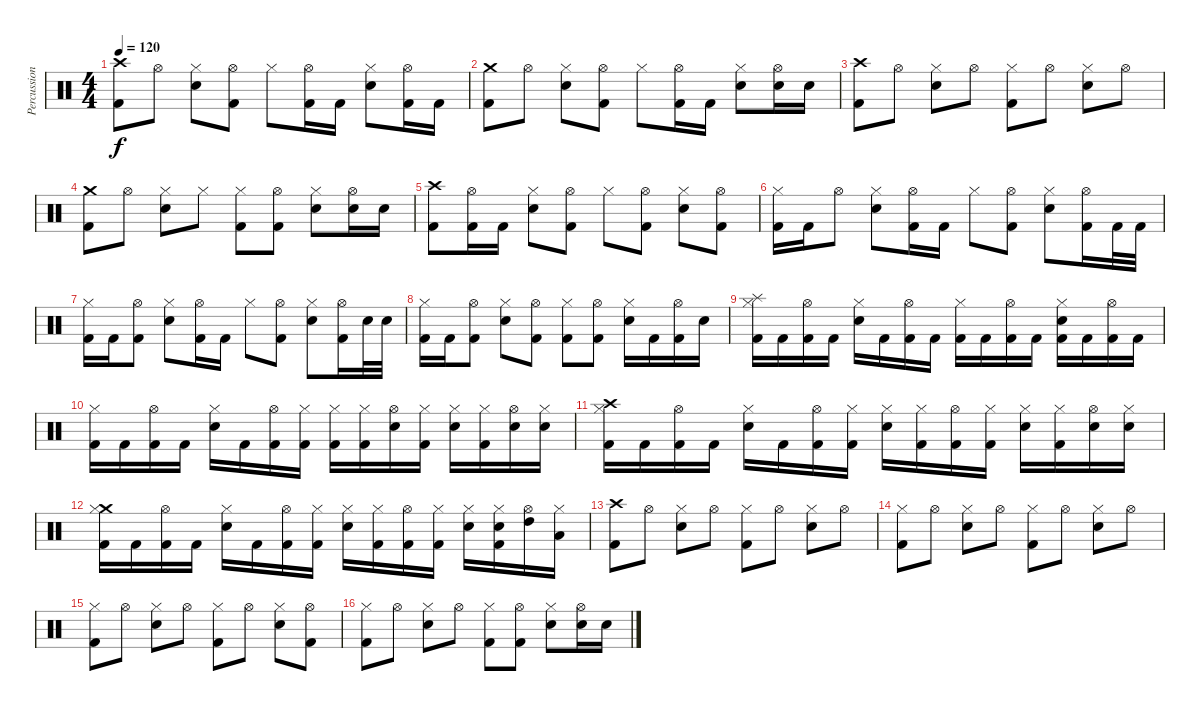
\track ("Percussion" "Percussion") {instrument percussion}
\staff {score}
\articulation defaults
\ts (4 4)
\tempo 120
\clef neutral
\ks c
("Crash high (hit)" "Kick (hit) 2").8{dy f} "Hi-Hat (open)".8 ("Hi-Hat (closed)" "Snare (hit) 2").8 ("Hi-Hat (open)" "Kick (hit) 2").8 "Hi-Hat (closed)".8 ("Hi-Hat (open)" "Kick (hit) 2").16 "Kick (hit) 2".16 ("Hi-Hat (closed)" "Snare (hit) 2").8 ("Hi-Hat (open)" "Kick (hit) 2").16 "Kick (hit) 2".16 |
("Crash medium (hit)" "Kick (hit) 2").8 "Hi-Hat (open)".8 ("Hi-Hat (closed)" "Snare (hit) 2").8 ("Hi-Hat (open)" "Kick (hit) 2").8 "Hi-Hat (closed)".8 ("Hi-Hat (open)" "Kick (hit) 2").16 "Kick (hit) 2".16 ("Hi-Hat (closed)" "Snare (hit) 2").8 ("Hi-Hat (open)" "Snare (hit) 2").16 "Snare (hit) 2".16 |
("Crash high (hit)" "Kick (hit) 2").8 "Hi-Hat (open)".8 ("Hi-Hat (closed)" "Snare (hit) 2").8 "Hi-Hat (open)".8 ("Hi-Hat (closed)" "Kick (hit) 2").8 "Hi-Hat (open)".8 ("Hi-Hat (closed)" "Snare (hit) 2").8 "Hi-Hat (open)".8 |
("Crash medium (hit)" "Kick (hit) 2").8 "Hi-Hat (open)".8 ("Hi-Hat (closed)" "Snare (hit) 2").8 "Hi-Hat (closed)".8 ("Hi-Hat (closed)" "Kick (hit) 2").8 ("Hi-Hat (open)" "Kick (hit) 2").8 ("Hi-Hat (closed)" "Snare (hit) 2").8 ("Hi-Hat (open)" "Snare (hit) 2").16 "Snare (hit) 2".16 |
("Crash high (hit)" "Kick (hit) 2").8 ("Hi-Hat (open)" "Kick (hit) 2").16 "Kick (hit) 2".16 ("Hi-Hat (closed)" "Snare (hit) 2").8 ("Hi-Hat (open)" "Kick (hit) 2").8 "Hi-Hat (closed)".8 ("Hi-Hat (open)" "Kick (hit) 2").8 ("Hi-Hat (closed)" "Snare (hit) 2").8 ("Hi-Hat (open)" "Kick (hit) 2").8 |
("Hi-Hat (closed)" "Kick (hit) 2").16 "Kick (hit) 2".16 "Hi-Hat (open)".8 ("Hi-Hat (closed)" "Snare (hit) 2").8 ("Hi-Hat (open)" "Kick (hit) 2").16 "Kick (hit) 2".16 "Hi-Hat (closed)".8 ("Hi-Hat (open)" "Kick (hit) 2").8 ("Hi-Hat (closed)" "Snare (hit) 2").8 ("Hi-Hat (open)" "Kick (hit) 2").16 "Kick (hit) 2".32 "Kick (hit) 2".32 |
("Hi-Hat (closed)" "Kick (hit) 2").16 "Kick (hit) 2".16 ("Hi-Hat (open)" "Kick (hit) 2").8 ("Hi-Hat (closed)" "Snare (hit) 2").8 ("Hi-Hat (open)" "Kick (hit) 2").16 "Kick (hit) 2".16 "Hi-Hat (closed)".8 ("Hi-Hat (open)" "Kick (hit) 2").8 ("Hi-Hat (closed)" "Snare (hit) 2").8 ("Hi-Hat (open)" "Kick (hit) 2").16 "Snare (hit) 2".32 "Snare (hit) 2".32 |
("Hi-Hat (closed)" "Kick (hit) 2").16 "Kick (hit) 2".16 ("Hi-Hat (open)" "Kick (hit) 2").8 ("Hi-Hat (closed)" "Snare (hit) 2").8 ("Hi-Hat (open)" "Kick (hit) 2").8 ("Hi-Hat (closed)" "Kick (hit) 2").8 ("Hi-Hat (open)" "Kick (hit) 2").8 ("Hi-Hat (closed)" "Snare (hit) 2").16 "Kick (hit) 2".16 ("Hi-Hat (open)" "Kick (hit) 2").16 "Snare (hit) 2".16 |
("Splash (hit)" "Hi-Hat (closed)" "Kick (hit) 2").16 "Kick (hit) 2".16 ("Hi-Hat (open)" "Kick (hit) 2").16 "Kick (hit) 2".16 ("Hi-Hat (closed)" "Snare (hit) 2").16 "Kick (hit) 2".16 ("Hi-Hat (open)" "Kick (hit) 2").16 "Kick (hit) 2".16 ("Hi-Hat (closed)" "Kick (hit) 2").16 "Kick (hit) 2".16 ("Hi-Hat (open)" "Kick (hit) 2").16 "Kick (hit) 2".16 ("Hi-Hat (closed)" "Snare (hit) 2" "Kick (hit) 2").16 "Kick (hit) 2".16 ("Hi-Hat (open)" "Kick (hit) 2").16 "Kick (hit) 2".16 |
("Hi-Hat (closed)" "Kick (hit) 2").16 "Kick (hit) 2".16 ("Hi-Hat (open)" "Kick (hit) 2").16 "Kick (hit) 2".16 ("Hi-Hat (closed)" "Snare (hit) 2").16 "Kick (hit) 2".16 ("Hi-Hat (open)" "Kick (hit) 2").16 ("Hi-Hat (closed)" "Kick (hit) 2").16 ("Hi-Hat (closed)" "Kick (hit) 2").16 ("Hi-Hat (closed)" "Kick (hit) 2").16 ("Hi-Hat (open)" "Snare (hit) 2").16 ("Hi-Hat (closed)" "Kick (hit) 2").16 ("Hi-Hat (closed)" "Snare (hit) 2").16 ("Hi-Hat (closed)" "Kick (hit) 2").16 ("Hi-Hat (open)" "Snare (hit) 2").16 ("Hi-Hat (closed)" "Snare (hit) 2").16 |
("Crash high (hit)" "Hi-Hat (closed)" "Kick (hit) 2").16 "Kick (hit) 2".16 ("Hi-Hat (open)" "Kick (hit) 2").16 "Kick (hit) 2".16 ("Hi-Hat (closed)" "Snare (hit) 2").16 "Kick (hit) 2".16 ("Hi-Hat (open)" "Kick (hit) 2").16 ("Hi-Hat (closed)" "Kick (hit) 2").16 ("Hi-Hat (closed)" "Snare (hit) 2").16 ("Hi-Hat (closed)" "Kick (hit) 2").16 ("Hi-Hat (open)" "Kick (hit) 2").16 ("Hi-Hat (closed)" "Kick (hit) 2").16 ("Hi-Hat (closed)" "Snare (hit) 2").16 ("Hi-Hat (closed)" "Kick (hit) 2").16 ("Hi-Hat (open)" "Snare (hit) 2").16 ("Hi-Hat (closed)" "Snare (hit) 2").16 |
("Crash medium (hit)" "Hi-Hat (closed)" "Kick (hit) 2").16 "Kick (hit) 2".16 ("Hi-Hat (open)" "Kick (hit) 2").16 "Kick (hit) 2".16 ("Hi-Hat (closed)" "Snare (hit) 2").16 "Kick (hit) 2".16 ("Hi-Hat (open)" "Kick (hit) 2").16 ("Hi-Hat (closed)" "Kick (hit) 2").16 ("Hi-Hat (closed)" "Snare (hit) 2").16 ("Hi-Hat (closed)" "Kick (hit) 2").16 ("Hi-Hat (open)" "Kick (hit) 2").16 ("Hi-Hat (closed)" "Kick (hit) 2").16 ("Hi-Hat (closed)" "Snare (hit) 2").16 ("Hi-Hat (closed)" "Snare (hit) 2" "Kick (hit) 2").16 ("High Tom (hit)" "Hi-Hat (open)").16 ("Low Tom (hit)" "Hi-Hat (closed)").16 |
("Crash high (hit)" "Kick (hit) 2").8 "Hi-Hat (open)".8 ("Hi-Hat (closed)" "Snare (hit) 2").8 "Hi-Hat (open)".8 ("Hi-Hat (closed)" "Kick (hit) 2").8 "Hi-Hat (open)".8 ("Hi-Hat (closed)" "Snare (hit) 2").8 "Hi-Hat (open)".8 |
("Hi-Hat (closed)" "Kick (hit) 2").8 "Hi-Hat (open)".8 ("Hi-Hat (closed)" "Snare (hit) 2").8 "Hi-Hat (open)".8 ("Hi-Hat (closed)" "Kick (hit) 2").8 "Hi-Hat (open)".8 ("Hi-Hat (closed)" "Snare (hit) 2").8 "Hi-Hat (open)".8 |
("Hi-Hat (closed)" "Kick (hit) 2").8 "Hi-Hat (open)".8 ("Hi-Hat (closed)" "Snare (hit) 2").8 "Hi-Hat (open)".8 ("Hi-Hat (closed)" "Kick (hit) 2").8 "Hi-Hat (open)".8 ("Hi-Hat (closed)" "Snare (hit) 2").8 ("Hi-Hat (open)" "Kick (hit) 2").8 |
("Hi-Hat (closed)" "Kick (hit) 2").8 "Hi-Hat (open)".8 ("Hi-Hat (closed)" "Snare (hit) 2").8 "Hi-Hat (open)".8 ("Hi-Hat (closed)" "Kick (hit) 2").8 ("Hi-Hat (open)" "Kick (hit) 2").8 ("Hi-Hat (closed)" "Snare (hit) 2").8 ("Hi-Hat (open)" "Snare (hit) 2").16 "Snare (hit) 2".16
